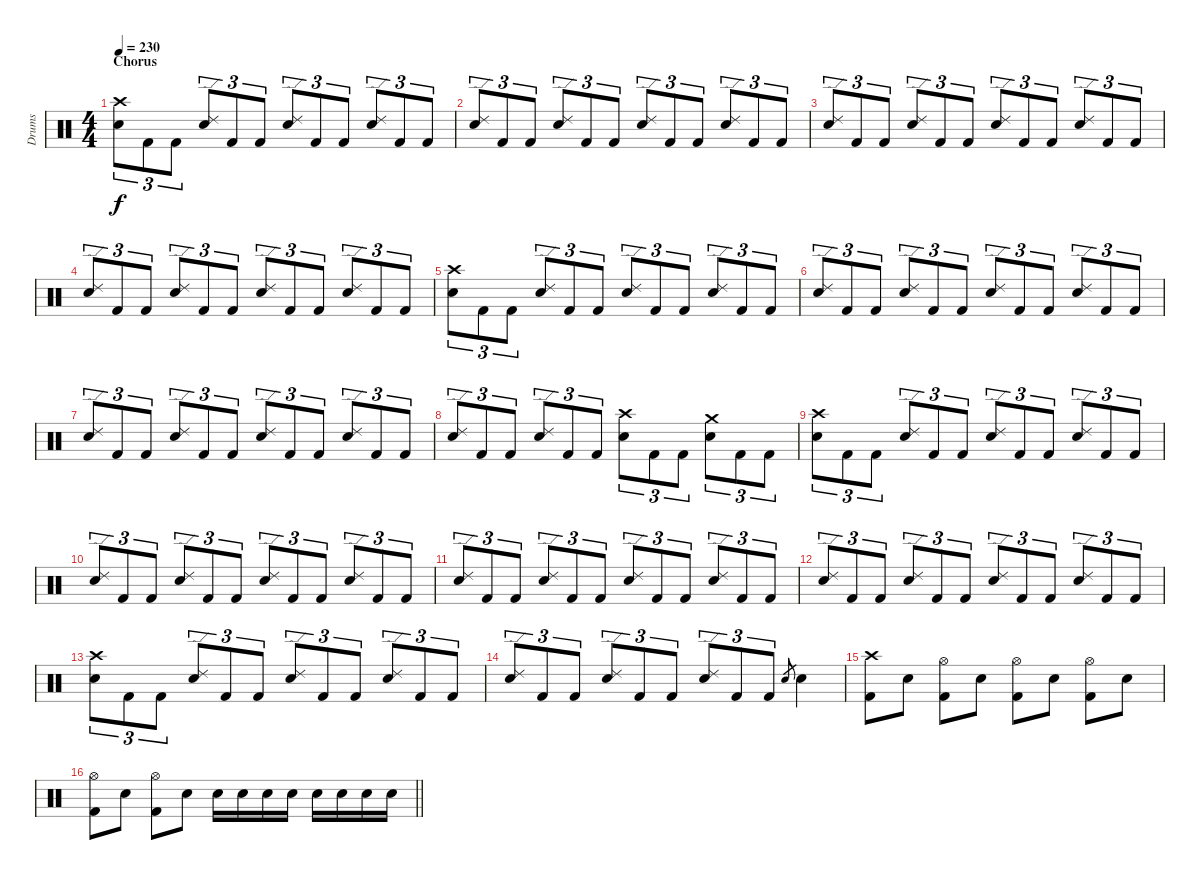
\track ("Drums" "Drums") {instrument percussion}
\staff {score}
\articulation defaults
\ts (4 4)
\section ("" "Chorus")
\tempo 230
\clef neutral
\ks c
("Crash high (hit)" "Electric Snare (hit)").8{tu (3 2) dy f} "Kick (hit) 2".8{tu (3 2)} "Kick (hit) 2".8{tu (3 2)} ("Ride (edge) 2" "Electric Snare (hit)").8{tu (3 2)} "Kick (hit) 2".8{tu (3 2)} "Kick (hit) 2".8{tu (3 2)} ("Ride (edge) 2" "Electric Snare (hit)").8{tu (3 2)} "Kick (hit) 2".8{tu (3 2)} "Kick (hit) 2".8{tu (3 2)} ("Ride (edge) 2" "Electric Snare (hit)").8{tu (3 2)} "Kick (hit) 2".8{tu (3 2)} "Kick (hit) 2".8{tu (3 2)} |
("Ride (edge) 2" "Electric Snare (hit)").8{tu (3 2)} "Kick (hit) 2".8{tu (3 2)} "Kick (hit) 2".8{tu (3 2)} ("Ride (edge) 2" "Electric Snare (hit)").8{tu (3 2)} "Kick (hit) 2".8{tu (3 2)} "Kick (hit) 2".8{tu (3 2)} ("Ride (edge) 2" "Electric Snare (hit)").8{tu (3 2)} "Kick (hit) 2".8{tu (3 2)} "Kick (hit) 2".8{tu (3 2)} ("Ride (edge) 2" "Electric Snare (hit)").8{tu (3 2)} "Kick (hit) 2".8{tu (3 2)} "Kick (hit) 2".8{tu (3 2)} |
("Ride (edge) 2" "Electric Snare (hit)").8{tu (3 2)} "Kick (hit) 2".8{tu (3 2)} "Kick (hit) 2".8{tu (3 2)} ("Ride (edge) 2" "Electric Snare (hit)").8{tu (3 2)} "Kick (hit) 2".8{tu (3 2)} "Kick (hit) 2".8{tu (3 2)} ("Ride (edge) 2" "Electric Snare (hit)").8{tu (3 2)} "Kick (hit) 2".8{tu (3 2)} "Kick (hit) 2".8{tu (3 2)} ("Ride (edge) 2" "Electric Snare (hit)").8{tu (3 2)} "Kick (hit) 2".8{tu (3 2)} "Kick (hit) 2".8{tu (3 2)} |
("Ride (edge) 2" "Electric Snare (hit)").8{tu (3 2)} "Kick (hit) 2".8{tu (3 2)} "Kick (hit) 2".8{tu (3 2)} ("Ride (edge) 2" "Electric Snare (hit)").8{tu (3 2)} "Kick (hit) 2".8{tu (3 2)} "Kick (hit) 2".8{tu (3 2)} ("Ride (edge) 2" "Electric Snare (hit)").8{tu (3 2)} "Kick (hit) 2".8{tu (3 2)} "Kick (hit) 2".8{tu (3 2)} ("Ride (edge) 2" "Electric Snare (hit)").8{tu (3 2)} "Kick (hit) 2".8{tu (3 2)} "Kick (hit) 2".8{tu (3 2)} |
("Crash high (hit)" "Electric Snare (hit)").8{tu (3 2)} "Kick (hit) 2".8{tu (3 2)} "Kick (hit) 2".8{tu (3 2)} ("Ride (edge) 2" "Electric Snare (hit)").8{tu (3 2)} "Kick (hit) 2".8{tu (3 2)} "Kick (hit) 2".8{tu (3 2)} ("Ride (edge) 2" "Electric Snare (hit)").8{tu (3 2)} "Kick (hit) 2".8{tu (3 2)} "Kick (hit) 2".8{tu (3 2)} ("Ride (edge) 2" "Electric Snare (hit)").8{tu (3 2)} "Kick (hit) 2".8{tu (3 2)} "Kick (hit) 2".8{tu (3 2)} |
("Ride (edge) 2" "Electric Snare (hit)").8{tu (3 2)} "Kick (hit) 2".8{tu (3 2)} "Kick (hit) 2".8{tu (3 2)} ("Ride (edge) 2" "Electric Snare (hit)").8{tu (3 2)} "Kick (hit) 2".8{tu (3 2)} "Kick (hit) 2".8{tu (3 2)} ("Ride (edge) 2" "Electric Snare (hit)").8{tu (3 2)} "Kick (hit) 2".8{tu (3 2)} "Kick (hit) 2".8{tu (3 2)} ("Ride (edge) 2" "Electric Snare (hit)").8{tu (3 2)} "Kick (hit) 2".8{tu (3 2)} "Kick (hit) 2".8{tu (3 2)} |
("Ride (edge) 2" "Electric Snare (hit)").8{tu (3 2)} "Kick (hit) 2".8{tu (3 2)} "Kick (hit) 2".8{tu (3 2)} ("Ride (edge) 2" "Electric Snare (hit)").8{tu (3 2)} "Kick (hit) 2".8{tu (3 2)} "Kick (hit) 2".8{tu (3 2)} ("Ride (edge) 2" "Electric Snare (hit)").8{tu (3 2)} "Kick (hit) 2".8{tu (3 2)} "Kick (hit) 2".8{tu (3 2)} ("Ride (edge) 2" "Electric Snare (hit)").8{tu (3 2)} "Kick (hit) 2".8{tu (3 2)} "Kick (hit) 2".8{tu (3 2)} |
("Ride (edge) 2" "Electric Snare (hit)").8{tu (3 2)} "Kick (hit) 2".8{tu (3 2)} "Kick (hit) 2".8{tu (3 2)} ("Ride (edge) 2" "Electric Snare (hit)").8{tu (3 2)} "Kick (hit) 2".8{tu (3 2)} "Kick (hit) 2".8{tu (3 2)} ("Crash high (hit)" "Electric Snare (hit)").8{tu (3 2)} "Kick (hit) 2".8{tu (3 2)} "Kick (hit) 2".8{tu (3 2)} ("Crash medium (hit)" "Electric Snare (hit)").8{tu (3 2)} "Kick (hit) 2".8{tu (3 2)} "Kick (hit) 2".8{tu (3 2)} |
("Crash high (hit)" "Electric Snare (hit)").8{tu (3 2)} "Kick (hit) 2".8{tu (3 2)} "Kick (hit) 2".8{tu (3 2)} ("Ride (edge) 2" "Electric Snare (hit)").8{tu (3 2)} "Kick (hit) 2".8{tu (3 2)} "Kick (hit) 2".8{tu (3 2)} ("Ride (edge) 2" "Electric Snare (hit)").8{tu (3 2)} "Kick (hit) 2".8{tu (3 2)} "Kick (hit) 2".8{tu (3 2)} ("Ride (edge) 2" "Electric Snare (hit)").8{tu (3 2)} "Kick (hit) 2".8{tu (3 2)} "Kick (hit) 2".8{tu (3 2)} |
("Ride (edge) 2" "Electric Snare (hit)").8{tu (3 2)} "Kick (hit) 2".8{tu (3 2)} "Kick (hit) 2".8{tu (3 2)} ("Ride (edge) 2" "Electric Snare (hit)").8{tu (3 2)} "Kick (hit) 2".8{tu (3 2)} "Kick (hit) 2".8{tu (3 2)} ("Ride (edge) 2" "Electric Snare (hit)").8{tu (3 2)} "Kick (hit) 2".8{tu (3 2)} "Kick (hit) 2".8{tu (3 2)} ("Ride (edge) 2" "Electric Snare (hit)").8{tu (3 2)} "Kick (hit) 2".8{tu (3 2)} "Kick (hit) 2".8{tu (3 2)} |
("Ride (edge) 2" "Electric Snare (hit)").8{tu (3 2)} "Kick (hit) 2".8{tu (3 2)} "Kick (hit) 2".8{tu (3 2)} ("Ride (edge) 2" "Electric Snare (hit)").8{tu (3 2)} "Kick (hit) 2".8{tu (3 2)} "Kick (hit) 2".8{tu (3 2)} ("Ride (edge) 2" "Electric Snare (hit)").8{tu (3 2)} "Kick (hit) 2".8{tu (3 2)} "Kick (hit) 2".8{tu (3 2)} ("Ride (edge) 2" "Electric Snare (hit)").8{tu (3 2)} "Kick (hit) 2".8{tu (3 2)} "Kick (hit) 2".8{tu (3 2)} |
("Ride (edge) 2" "Electric Snare (hit)").8{tu (3 2)} "Kick (hit) 2".8{tu (3 2)} "Kick (hit) 2".8{tu (3 2)} ("Ride (edge) 2" "Electric Snare (hit)").8{tu (3 2)} "Kick (hit) 2".8{tu (3 2)} "Kick (hit) 2".8{tu (3 2)} ("Ride (edge) 2" "Electric Snare (hit)").8{tu (3 2)} "Kick (hit) 2".8{tu (3 2)} "Kick (hit) 2".8{tu (3 2)} ("Ride (edge) 2" "Electric Snare (hit)").8{tu (3 2)} "Kick (hit) 2".8{tu (3 2)} "Kick (hit) 2".8{tu (3 2)} |
("Crash high (hit)" "Electric Snare (hit)").8{tu (3 2)} "Kick (hit) 2".8{tu (3 2)} "Kick (hit) 2".8{tu (3 2)} ("Ride (edge) 2" "Electric Snare (hit)").8{tu (3 2)} "Kick (hit) 2".8{tu (3 2)} "Kick (hit) 2".8{tu (3 2)} ("Ride (edge) 2" "Electric Snare (hit)").8{tu (3 2)} "Kick (hit) 2".8{tu (3 2)} "Kick (hit) 2".8{tu (3 2)} ("Ride (edge) 2" "Electric Snare (hit)").8{tu (3 2)} "Kick (hit) 2".8{tu (3 2)} "Kick (hit) 2".8{tu (3 2)} |
("Ride (edge) 2" "Electric Snare (hit)").8{tu (3 2)} "Kick (hit) 2".8{tu (3 2)} "Kick (hit) 2".8{tu (3 2)} ("Ride (edge) 2" "Electric Snare (hit)").8{tu (3 2)} "Kick (hit) 2".8{tu (3 2)} "Kick (hit) 2".8{tu (3 2)} ("Ride (edge) 2" "Electric Snare (hit)").8{tu (3 2)} "Kick (hit) 2".8{tu (3 2)} "Kick (hit) 2".8{tu (3 2)} "Electric Snare (hit)".8{gr} "Electric Snare (hit)".4 |
("Crash high (hit)" "Kick (hit) 2").8 "Electric Snare (hit)".8 ("Hi-Hat (open)" "Kick (hit) 2").8 "Electric Snare (hit)".8 ("Hi-Hat (open)" "Kick (hit) 2").8 "Electric Snare (hit)".8 ("Hi-Hat (open)" "Kick (hit) 2").8 "Electric Snare (hit)".8 |
\barLineRight lightlight
("Hi-Hat (open)" "Kick (hit) 2").8 "Electric Snare (hit)".8 ("Hi-Hat (open)" "Kick (hit) 2").8 "Electric Snare (hit)".8 "Electric Snare (hit)".16 "Electric Snare (hit)".16 "Electric Snare (hit)".16 "Electric Snare (hit)".16 "Electric Snare (hit)".16 "Electric Snare (hit)".16 "Electric Snare (hit)".16 "Electric Snare (hit)".16
